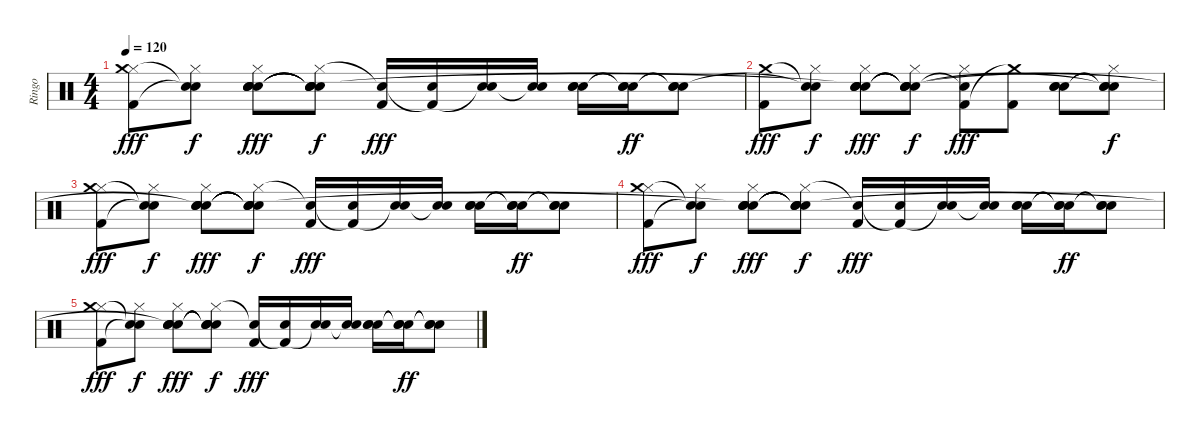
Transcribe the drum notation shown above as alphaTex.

\track ("Ringo" "Ringo") {instrument percussion}
\staff {score}
\articulation defaults
\ts (4 4)
\tempo 120
\clef neutral
\ks c
("Hi-Hat (closed)" "Kick (hit) 2" "Crash medium (hit)").8{dy fff} ("Hi-Hat (closed)" "Snare (hit)"{t} "Snare (hit)"{t}).8{dy f} ("Hand Clap (hit)" "Hi-Hat (closed)" "Electric Snare (hit)" "Hand Clap (hit)" "Snare (hit)"{t}).8{dy fff} ("Snare (hit)"{t} "Hi-Hat (closed)" "Snare (hit)"{t} "Snare (hit)"{t} "Snare (hit)"{t}).8{dy f} ("Kick (hit) 2" "Snare (hit)"{t}).16{dy fff} ("Electric Snare (hit)" "Kick (hit) 2"{t}).16 ("Electric Snare (hit)" "Snare (hit)"{t}).16 ("Electric Snare (hit)" "Electric Snare (hit)"{t}).16 ("Hand Clap (hit)" "Electric Snare (hit)" "Hand Clap (hit)").16 ("Snare (hit)"{t} "Electric Snare (hit)" "Snare (hit)"{t}).16{dy ff} ("Snare (hit)"{t} "Electric Snare (hit)" "Snare (hit)"{t}).8 |
("Kick (hit) 2" "Crash medium (hit)").8{dy fff} ("Hi-Hat (closed)" "Snare (hit)"{t} "Snare (hit)"{t}).8{dy f} ("Hand Clap (hit)" "Hi-Hat (closed)" "Electric Snare (hit)" "Hand Clap (hit)" "Snare (hit)"{t}).8{dy fff} ("Snare (hit)"{t} "Hi-Hat (closed)" "Snare (hit)"{t} "Snare (hit)"{t} "Snare (hit)"{t}).8{dy f} ("Hi-Hat (closed)" "Kick (hit) 2" "Snare (hit)"{t}).8{dy fff} ("Kick (hit) 2" "Crash medium (hit)"{t}).8 ("Hand Clap (hit)" "Electric Snare (hit)" "Hand Clap (hit)").8 ("Snare (hit)"{t} "Hi-Hat (closed)" "Snare (hit)"{t} "Snare (hit)"{t}).8{dy f} |
("Hi-Hat (closed)" "Kick (hit) 2" "Crash medium (hit)").8{dy fff} ("Hi-Hat (closed)" "Snare (hit)"{t} "Snare (hit)"{t}).8{dy f} ("Hand Clap (hit)" "Hi-Hat (closed)" "Electric Snare (hit)" "Hand Clap (hit)" "Snare (hit)"{t}).8{dy fff} ("Snare (hit)"{t} "Hi-Hat (closed)" "Snare (hit)"{t} "Snare (hit)"{t} "Snare (hit)"{t}).8{dy f} ("Kick (hit) 2" "Snare (hit)"{t}).16{dy fff} ("Electric Snare (hit)" "Kick (hit) 2"{t}).16 ("Electric Snare (hit)" "Snare (hit)"{t}).16 ("Electric Snare (hit)" "Electric Snare (hit)"{t}).16 ("Hand Clap (hit)" "Electric Snare (hit)" "Hand Clap (hit)").16 ("Snare (hit)"{t} "Electric Snare (hit)" "Snare (hit)"{t}).16{dy ff} ("Snare (hit)"{t} "Electric Snare (hit)" "Snare (hit)"{t}).8 |
("Hi-Hat (closed)" "Kick (hit) 2" "Crash medium (hit)").8{dy fff} ("Hi-Hat (closed)" "Snare (hit)"{t} "Snare (hit)"{t}).8{dy f} ("Hand Clap (hit)" "Hi-Hat (closed)" "Electric Snare (hit)" "Hand Clap (hit)" "Snare (hit)"{t}).8{dy fff} ("Snare (hit)"{t} "Hi-Hat (closed)" "Snare (hit)"{t} "Snare (hit)"{t} "Snare (hit)"{t}).8{dy f} ("Kick (hit) 2" "Snare (hit)"{t}).16{dy fff} ("Electric Snare (hit)" "Kick (hit) 2"{t}).16 ("Electric Snare (hit)" "Snare (hit)"{t}).16 ("Electric Snare (hit)" "Electric Snare (hit)"{t}).16 ("Hand Clap (hit)" "Electric Snare (hit)" "Hand Clap (hit)").16 ("Snare (hit)"{t} "Electric Snare (hit)" "Snare (hit)"{t}).16{dy ff} ("Snare (hit)"{t} "Electric Snare (hit)" "Snare (hit)"{t}).8 |
("Hi-Hat (closed)" "Kick (hit) 2" "Crash medium (hit)").8{dy fff} ("Hi-Hat (closed)" "Snare (hit)"{t} "Snare (hit)"{t}).8{dy f} ("Hand Clap (hit)" "Hi-Hat (closed)" "Electric Snare (hit)" "Hand Clap (hit)" "Snare (hit)"{t}).8{dy fff} ("Snare (hit)"{t} "Hi-Hat (closed)" "Snare (hit)"{t} "Snare (hit)"{t} "Snare (hit)"{t}).8{dy f} ("Kick (hit) 2" "Snare (hit)"{t}).16{dy fff} ("Electric Snare (hit)" "Kick (hit) 2"{t}).16 ("Electric Snare (hit)" "Snare (hit)"{t}).16 ("Electric Snare (hit)" "Electric Snare (hit)"{t}).16 ("Hand Clap (hit)" "Electric Snare (hit)" "Hand Clap (hit)").16 ("Snare (hit)"{t} "Electric Snare (hit)" "Snare (hit)"{t}).16{dy ff} ("Snare (hit)"{t} "Electric Snare (hit)" "Snare (hit)"{t}).8
